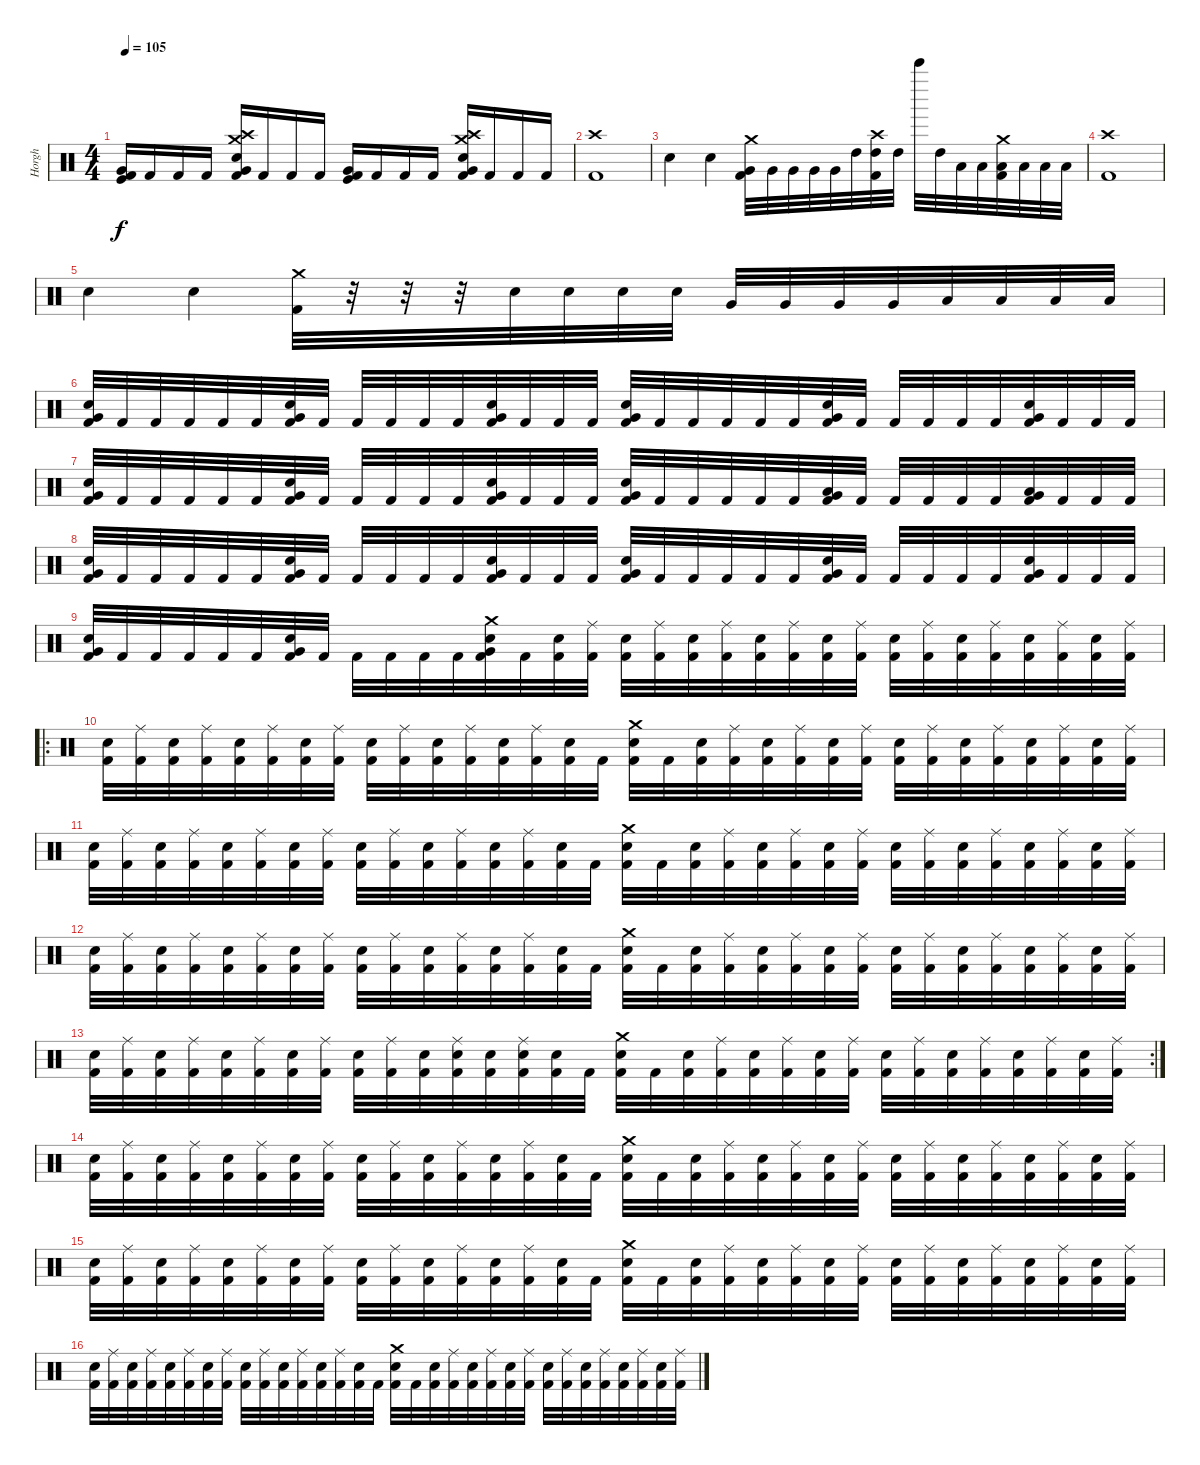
\track ("Horgh" "Horgh") {instrument percussion}
\staff {score}
\articulation defaults
\ts (4 4)
\tempo 105
\clef neutral
\ks c
("Kick (hit) 2" "Very Low Tom (hit)" "Kick (hit)").16{dy f} "Kick (hit) 2".16 "Kick (hit) 2".16 "Kick (hit) 2".16 ("Crash medium (hit)" "Crash high (hit)" "Snare (hit) 2" "Very Low Tom (hit)" "Kick (hit) 2").16 "Kick (hit) 2".16 "Kick (hit) 2".16 "Kick (hit) 2".16 ("Kick (hit) 2" "Very Low Tom (hit)" "Kick (hit)").16 "Kick (hit) 2".16 "Kick (hit) 2".16 "Kick (hit) 2".16 ("Crash medium (hit)" "Crash high (hit)" "Snare (hit) 2" "Very Low Tom (hit)" "Kick (hit) 2").16 "Kick (hit) 2".16 "Kick (hit) 2".16 "Kick (hit) 2".16 |
("Crash high (hit)" "Kick (hit) 2").1 |
"Snare (hit)".4 "Snare (hit)".4 ("Crash medium (hit)" "Very Low Tom (hit)" "Kick (hit) 2").32 "Very Low Tom (hit)".32 "Very Low Tom (hit)".32 "Very Low Tom (hit)".32 "Very Low Tom (hit)".32 "High Tom (hit)".32 ("Crash high (hit)" "High Tom (hit)" "Kick (hit) 2").32 "High Tom (hit)".32 "Bell Tree (hit)".32 "High Tom (hit)".32 "Low Tom (hit)".32 "Low Tom (hit)".32 ("Crash medium (hit)" "Low Tom (hit)" "Kick (hit) 2").32 "Low Tom (hit)".32 "Low Tom (hit)".32 "Low Tom (hit)".32 |
("Crash high (hit)" "Kick (hit) 2").1 |
"Snare (hit)".4 "Snare (hit)".4 ("Crash medium (hit)" "Kick (hit) 2").32 r.32 r.32 r.32 "Electric Snare (hit)".32 "Electric Snare (hit)".32 "Electric Snare (hit)".32 "Electric Snare (hit)".32 "Very Low Tom (hit)".32 "Very Low Tom (hit)".32 "Very Low Tom (hit)".32 "Very Low Tom (hit)".32 "Low Tom (hit)".32 "Low Tom (hit)".32 "Low Tom (hit)".32 "Low Tom (hit)".32 |
("Electric Snare (hit)" "Very Low Tom (hit)" "Kick (hit) 2").32 "Kick (hit) 2".32 "Kick (hit) 2".32 "Kick (hit) 2".32 "Kick (hit) 2".32 "Kick (hit) 2".32 ("Electric Snare (hit)" "Very Low Tom (hit)" "Kick (hit) 2").32 "Kick (hit) 2".32 "Kick (hit) 2".32 "Kick (hit) 2".32 "Kick (hit) 2".32 "Kick (hit) 2".32 ("Electric Snare (hit)" "Very Low Tom (hit)" "Kick (hit) 2").32 "Kick (hit) 2".32 "Kick (hit) 2".32 "Kick (hit) 2".32 ("Electric Snare (hit)" "Very Low Tom (hit)" "Kick (hit) 2").32 "Kick (hit) 2".32 "Kick (hit) 2".32 "Kick (hit) 2".32 "Kick (hit) 2".32 "Kick (hit) 2".32 ("Electric Snare (hit)" "Very Low Tom (hit)" "Kick (hit) 2").32 "Kick (hit) 2".32 "Kick (hit) 2".32 "Kick (hit) 2".32 "Kick (hit) 2".32 "Kick (hit) 2".32 ("Electric Snare (hit)" "Very Low Tom (hit)" "Kick (hit) 2").32 "Kick (hit) 2".32 "Kick (hit) 2".32 "Kick (hit) 2".32 |
("Electric Snare (hit)" "Very Low Tom (hit)" "Kick (hit) 2").32 "Kick (hit) 2".32 "Kick (hit) 2".32 "Kick (hit) 2".32 "Kick (hit) 2".32 "Kick (hit) 2".32 ("Electric Snare (hit)" "Very Low Tom (hit)" "Kick (hit) 2").32 "Kick (hit) 2".32 "Kick (hit) 2".32 "Kick (hit) 2".32 "Kick (hit) 2".32 "Kick (hit) 2".32 ("Electric Snare (hit)" "Very Low Tom (hit)" "Kick (hit) 2").32 "Kick (hit) 2".32 "Kick (hit) 2".32 "Kick (hit) 2".32 ("Electric Snare (hit)" "Very Low Tom (hit)" "Kick (hit) 2").32 "Kick (hit) 2".32 "Kick (hit) 2".32 "Kick (hit) 2".32 "Kick (hit) 2".32 "Kick (hit) 2".32 ("Low Tom (hit)" "Very Low Tom (hit)" "Kick (hit) 2").32 "Kick (hit) 2".32 "Kick (hit) 2".32 "Kick (hit) 2".32 "Kick (hit) 2".32 "Kick (hit) 2".32 ("Low Tom (hit)" "Very Low Tom (hit)" "Kick (hit) 2").32 "Kick (hit) 2".32 "Kick (hit) 2".32 "Kick (hit) 2".32 |
("Electric Snare (hit)" "Very Low Tom (hit)" "Kick (hit) 2").32 "Kick (hit) 2".32 "Kick (hit) 2".32 "Kick (hit) 2".32 "Kick (hit) 2".32 "Kick (hit) 2".32 ("Electric Snare (hit)" "Very Low Tom (hit)" "Kick (hit) 2").32 "Kick (hit) 2".32 "Kick (hit) 2".32 "Kick (hit) 2".32 "Kick (hit) 2".32 "Kick (hit) 2".32 ("Electric Snare (hit)" "Very Low Tom (hit)" "Kick (hit) 2").32 "Kick (hit) 2".32 "Kick (hit) 2".32 "Kick (hit) 2".32 ("Electric Snare (hit)" "Very Low Tom (hit)" "Kick (hit) 2").32 "Kick (hit) 2".32 "Kick (hit) 2".32 "Kick (hit) 2".32 "Kick (hit) 2".32 "Kick (hit) 2".32 ("Electric Snare (hit)" "Very Low Tom (hit)" "Kick (hit) 2").32 "Kick (hit) 2".32 "Kick (hit) 2".32 "Kick (hit) 2".32 "Kick (hit) 2".32 "Kick (hit) 2".32 ("Electric Snare (hit)" "Very Low Tom (hit)" "Kick (hit) 2").32 "Kick (hit) 2".32 "Kick (hit) 2".32 "Kick (hit) 2".32 |
("Electric Snare (hit)" "Very Low Tom (hit)" "Kick (hit) 2").32 "Kick (hit) 2".32 "Kick (hit) 2".32 "Kick (hit) 2".32 "Kick (hit) 2".32 "Kick (hit) 2".32 ("Electric Snare (hit)" "Very Low Tom (hit)" "Kick (hit) 2").32 "Kick (hit) 2".32 "Kick (hit) 2".32 "Kick (hit) 2".32 "Kick (hit) 2".32 "Kick (hit) 2".32 ("Crash medium (hit)" "Electric Snare (hit)" "Very Low Tom (hit)" "Kick (hit) 2").32 "Kick (hit) 2".32 ("Electric Snare (hit)" "Kick (hit) 2").32 ("Ride (middle)" "Kick (hit) 2").32 ("Electric Snare (hit)" "Kick (hit) 2").32 ("Ride (middle)" "Kick (hit) 2").32 ("Electric Snare (hit)" "Kick (hit) 2").32 ("Ride (middle)" "Kick (hit) 2").32 ("Electric Snare (hit)" "Kick (hit) 2").32 ("Ride (middle)" "Kick (hit) 2").32 ("Electric Snare (hit)" "Kick (hit) 2").32 ("Ride (middle)" "Kick (hit) 2").32 ("Electric Snare (hit)" "Kick (hit) 2").32 ("Ride (middle)" "Kick (hit) 2").32 ("Electric Snare (hit)" "Kick (hit) 2").32 ("Ride (middle)" "Kick (hit) 2").32 ("Electric Snare (hit)" "Kick (hit) 2").32 ("Ride (middle)" "Kick (hit) 2").32 ("Electric Snare (hit)" "Kick (hit) 2").32 ("Ride (middle)" "Kick (hit) 2").32 |
\ro
("Electric Snare (hit)" "Kick (hit) 2").32 ("Ride (middle)" "Kick (hit) 2").32 ("Electric Snare (hit)" "Kick (hit) 2").32 ("Ride (middle)" "Kick (hit) 2").32 ("Electric Snare (hit)" "Kick (hit) 2").32 ("Ride (middle)" "Kick (hit) 2").32 ("Electric Snare (hit)" "Kick (hit) 2").32 ("Ride (middle)" "Kick (hit) 2").32 ("Electric Snare (hit)" "Kick (hit) 2").32 ("Ride (middle)" "Kick (hit) 2").32 ("Electric Snare (hit)" "Kick (hit) 2").32 ("Ride (middle)" "Kick (hit) 2").32 ("Electric Snare (hit)" "Kick (hit) 2").32 ("Ride (middle)" "Kick (hit) 2").32 ("Electric Snare (hit)" "Kick (hit) 2").32 "Kick (hit) 2".32 ("Crash medium (hit)" "Electric Snare (hit)" "Kick (hit) 2").32 "Kick (hit) 2".32 ("Electric Snare (hit)" "Kick (hit) 2").32 ("Ride (middle)" "Kick (hit) 2").32 ("Electric Snare (hit)" "Kick (hit) 2").32 ("Ride (middle)" "Kick (hit) 2").32 ("Electric Snare (hit)" "Kick (hit) 2").32 ("Ride (middle)" "Kick (hit) 2").32 ("Electric Snare (hit)" "Kick (hit) 2").32 ("Ride (middle)" "Kick (hit) 2").32 ("Electric Snare (hit)" "Kick (hit) 2").32 ("Ride (middle)" "Kick (hit) 2").32 ("Electric Snare (hit)" "Kick (hit) 2").32 ("Ride (middle)" "Kick (hit) 2").32 ("Electric Snare (hit)" "Kick (hit) 2").32 ("Ride (middle)" "Kick (hit) 2").32 |
("Electric Snare (hit)" "Kick (hit) 2").32 ("Ride (middle)" "Kick (hit) 2").32 ("Electric Snare (hit)" "Kick (hit) 2").32 ("Ride (middle)" "Kick (hit) 2").32 ("Electric Snare (hit)" "Kick (hit) 2").32 ("Ride (middle)" "Kick (hit) 2").32 ("Electric Snare (hit)" "Kick (hit) 2").32 ("Ride (middle)" "Kick (hit) 2").32 ("Electric Snare (hit)" "Kick (hit) 2").32 ("Ride (middle)" "Kick (hit) 2").32 ("Electric Snare (hit)" "Kick (hit) 2").32 ("Ride (middle)" "Kick (hit) 2").32 ("Electric Snare (hit)" "Kick (hit) 2").32 ("Ride (middle)" "Kick (hit) 2").32 ("Electric Snare (hit)" "Kick (hit) 2").32 "Kick (hit) 2".32 ("Crash medium (hit)" "Electric Snare (hit)" "Kick (hit) 2").32 "Kick (hit) 2".32 ("Electric Snare (hit)" "Kick (hit) 2").32 ("Ride (middle)" "Kick (hit) 2").32 ("Electric Snare (hit)" "Kick (hit) 2").32 ("Ride (middle)" "Kick (hit) 2").32 ("Electric Snare (hit)" "Kick (hit) 2").32 ("Ride (middle)" "Kick (hit) 2").32 ("Electric Snare (hit)" "Kick (hit) 2").32 ("Ride (middle)" "Kick (hit) 2").32 ("Electric Snare (hit)" "Kick (hit) 2").32 ("Ride (middle)" "Kick (hit) 2").32 ("Electric Snare (hit)" "Kick (hit) 2").32 ("Ride (middle)" "Kick (hit) 2").32 ("Electric Snare (hit)" "Kick (hit) 2").32 ("Ride (middle)" "Kick (hit) 2").32 |
("Electric Snare (hit)" "Kick (hit) 2").32 ("Ride (middle)" "Kick (hit) 2").32 ("Electric Snare (hit)" "Kick (hit) 2").32 ("Ride (middle)" "Kick (hit) 2").32 ("Electric Snare (hit)" "Kick (hit) 2").32 ("Ride (middle)" "Kick (hit) 2").32 ("Electric Snare (hit)" "Kick (hit) 2").32 ("Ride (middle)" "Kick (hit) 2").32 ("Electric Snare (hit)" "Kick (hit) 2").32 ("Ride (middle)" "Kick (hit) 2").32 ("Electric Snare (hit)" "Kick (hit) 2").32 ("Ride (middle)" "Kick (hit) 2").32 ("Electric Snare (hit)" "Kick (hit) 2").32 ("Ride (middle)" "Kick (hit) 2").32 ("Electric Snare (hit)" "Kick (hit) 2").32 "Kick (hit) 2".32 ("Crash medium (hit)" "Electric Snare (hit)" "Kick (hit) 2").32 "Kick (hit) 2".32 ("Electric Snare (hit)" "Kick (hit) 2").32 ("Ride (middle)" "Kick (hit) 2").32 ("Electric Snare (hit)" "Kick (hit) 2").32 ("Ride (middle)" "Kick (hit) 2").32 ("Electric Snare (hit)" "Kick (hit) 2").32 ("Ride (middle)" "Kick (hit) 2").32 ("Electric Snare (hit)" "Kick (hit) 2").32 ("Ride (middle)" "Kick (hit) 2").32 ("Electric Snare (hit)" "Kick (hit) 2").32 ("Ride (middle)" "Kick (hit) 2").32 ("Electric Snare (hit)" "Kick (hit) 2").32 ("Ride (middle)" "Kick (hit) 2").32 ("Electric Snare (hit)" "Kick (hit) 2").32 ("Ride (middle)" "Kick (hit) 2").32 |
\rc 2
("Electric Snare (hit)" "Kick (hit) 2").32 ("Ride (middle)" "Kick (hit) 2").32 ("Electric Snare (hit)" "Kick (hit) 2").32 ("Ride (middle)" "Kick (hit) 2").32 ("Electric Snare (hit)" "Kick (hit) 2").32 ("Ride (middle)" "Kick (hit) 2").32 ("Electric Snare (hit)" "Kick (hit) 2").32 ("Ride (middle)" "Kick (hit) 2").32 ("Electric Snare (hit)" "Kick (hit) 2").32 ("Ride (middle)" "Kick (hit) 2").32 ("Electric Snare (hit)" "Kick (hit) 2").32 ("Ride (middle)" "Electric Snare (hit)" "Kick (hit) 2").32 ("Electric Snare (hit)" "Kick (hit) 2").32 ("Ride (middle)" "Electric Snare (hit)" "Kick (hit) 2").32 ("Electric Snare (hit)" "Kick (hit) 2").32 "Kick (hit) 2".32 ("Crash medium (hit)" "Electric Snare (hit)" "Kick (hit) 2").32 "Kick (hit) 2".32 ("Electric Snare (hit)" "Kick (hit) 2").32 ("Ride (middle)" "Kick (hit) 2").32 ("Electric Snare (hit)" "Kick (hit) 2").32 ("Ride (middle)" "Kick (hit) 2").32 ("Electric Snare (hit)" "Kick (hit) 2").32 ("Ride (middle)" "Kick (hit) 2").32 ("Electric Snare (hit)" "Kick (hit) 2").32 ("Ride (middle)" "Kick (hit) 2").32 ("Electric Snare (hit)" "Kick (hit) 2").32 ("Ride (middle)" "Kick (hit) 2").32 ("Electric Snare (hit)" "Kick (hit) 2").32 ("Ride (middle)" "Kick (hit) 2").32 ("Electric Snare (hit)" "Kick (hit) 2").32 ("Ride (middle)" "Kick (hit) 2").32 |
("Electric Snare (hit)" "Kick (hit) 2").32 ("Ride (middle)" "Kick (hit) 2").32 ("Electric Snare (hit)" "Kick (hit) 2").32 ("Ride (middle)" "Kick (hit) 2").32 ("Electric Snare (hit)" "Kick (hit) 2").32 ("Ride (middle)" "Kick (hit) 2").32 ("Electric Snare (hit)" "Kick (hit) 2").32 ("Ride (middle)" "Kick (hit) 2").32 ("Electric Snare (hit)" "Kick (hit) 2").32 ("Ride (middle)" "Kick (hit) 2").32 ("Electric Snare (hit)" "Kick (hit) 2").32 ("Ride (middle)" "Kick (hit) 2").32 ("Electric Snare (hit)" "Kick (hit) 2").32 ("Ride (middle)" "Kick (hit) 2").32 ("Electric Snare (hit)" "Kick (hit) 2").32 "Kick (hit) 2".32 ("Crash medium (hit)" "Electric Snare (hit)" "Kick (hit) 2").32 "Kick (hit) 2".32 ("Electric Snare (hit)" "Kick (hit) 2").32 ("Ride (middle)" "Kick (hit) 2").32 ("Electric Snare (hit)" "Kick (hit) 2").32 ("Ride (middle)" "Kick (hit) 2").32 ("Electric Snare (hit)" "Kick (hit) 2").32 ("Ride (middle)" "Kick (hit) 2").32 ("Electric Snare (hit)" "Kick (hit) 2").32 ("Ride (middle)" "Kick (hit) 2").32 ("Electric Snare (hit)" "Kick (hit) 2").32 ("Ride (middle)" "Kick (hit) 2").32 ("Electric Snare (hit)" "Kick (hit) 2").32 ("Ride (middle)" "Kick (hit) 2").32 ("Electric Snare (hit)" "Kick (hit) 2").32 ("Ride (middle)" "Kick (hit) 2").32 |
("Electric Snare (hit)" "Kick (hit) 2").32 ("Ride (middle)" "Kick (hit) 2").32 ("Electric Snare (hit)" "Kick (hit) 2").32 ("Ride (middle)" "Kick (hit) 2").32 ("Electric Snare (hit)" "Kick (hit) 2").32 ("Ride (middle)" "Kick (hit) 2").32 ("Electric Snare (hit)" "Kick (hit) 2").32 ("Ride (middle)" "Kick (hit) 2").32 ("Electric Snare (hit)" "Kick (hit) 2").32 ("Ride (middle)" "Kick (hit) 2").32 ("Electric Snare (hit)" "Kick (hit) 2").32 ("Ride (middle)" "Kick (hit) 2").32 ("Electric Snare (hit)" "Kick (hit) 2").32 ("Ride (middle)" "Kick (hit) 2").32 ("Electric Snare (hit)" "Kick (hit) 2").32 "Kick (hit) 2".32 ("Crash medium (hit)" "Electric Snare (hit)" "Kick (hit) 2").32 "Kick (hit) 2".32 ("Electric Snare (hit)" "Kick (hit) 2").32 ("Ride (middle)" "Kick (hit) 2").32 ("Electric Snare (hit)" "Kick (hit) 2").32 ("Ride (middle)" "Kick (hit) 2").32 ("Electric Snare (hit)" "Kick (hit) 2").32 ("Ride (middle)" "Kick (hit) 2").32 ("Electric Snare (hit)" "Kick (hit) 2").32 ("Ride (middle)" "Kick (hit) 2").32 ("Electric Snare (hit)" "Kick (hit) 2").32 ("Ride (middle)" "Kick (hit) 2").32 ("Electric Snare (hit)" "Kick (hit) 2").32 ("Ride (middle)" "Kick (hit) 2").32 ("Electric Snare (hit)" "Kick (hit) 2").32 ("Ride (middle)" "Kick (hit) 2").32 |
("Electric Snare (hit)" "Kick (hit) 2").32 ("Ride (middle)" "Kick (hit) 2").32 ("Electric Snare (hit)" "Kick (hit) 2").32 ("Ride (middle)" "Kick (hit) 2").32 ("Electric Snare (hit)" "Kick (hit) 2").32 ("Ride (middle)" "Kick (hit) 2").32 ("Electric Snare (hit)" "Kick (hit) 2").32 ("Ride (middle)" "Kick (hit) 2").32 ("Electric Snare (hit)" "Kick (hit) 2").32 ("Ride (middle)" "Kick (hit) 2").32 ("Electric Snare (hit)" "Kick (hit) 2").32 ("Ride (middle)" "Kick (hit) 2").32 ("Electric Snare (hit)" "Kick (hit) 2").32 ("Ride (middle)" "Kick (hit) 2").32 ("Electric Snare (hit)" "Kick (hit) 2").32 "Kick (hit) 2".32 ("Crash medium (hit)" "Electric Snare (hit)" "Kick (hit) 2").32 "Kick (hit) 2".32 ("Electric Snare (hit)" "Kick (hit) 2").32 ("Ride (middle)" "Kick (hit) 2").32 ("Electric Snare (hit)" "Kick (hit) 2").32 ("Ride (middle)" "Kick (hit) 2").32 ("Electric Snare (hit)" "Kick (hit) 2").32 ("Ride (middle)" "Kick (hit) 2").32 ("Electric Snare (hit)" "Kick (hit) 2").32 ("Ride (middle)" "Kick (hit) 2").32 ("Electric Snare (hit)" "Kick (hit) 2").32 ("Ride (middle)" "Kick (hit) 2").32 ("Electric Snare (hit)" "Kick (hit) 2").32 ("Ride (middle)" "Kick (hit) 2").32 ("Electric Snare (hit)" "Kick (hit) 2").32 ("Ride (middle)" "Kick (hit) 2").32
